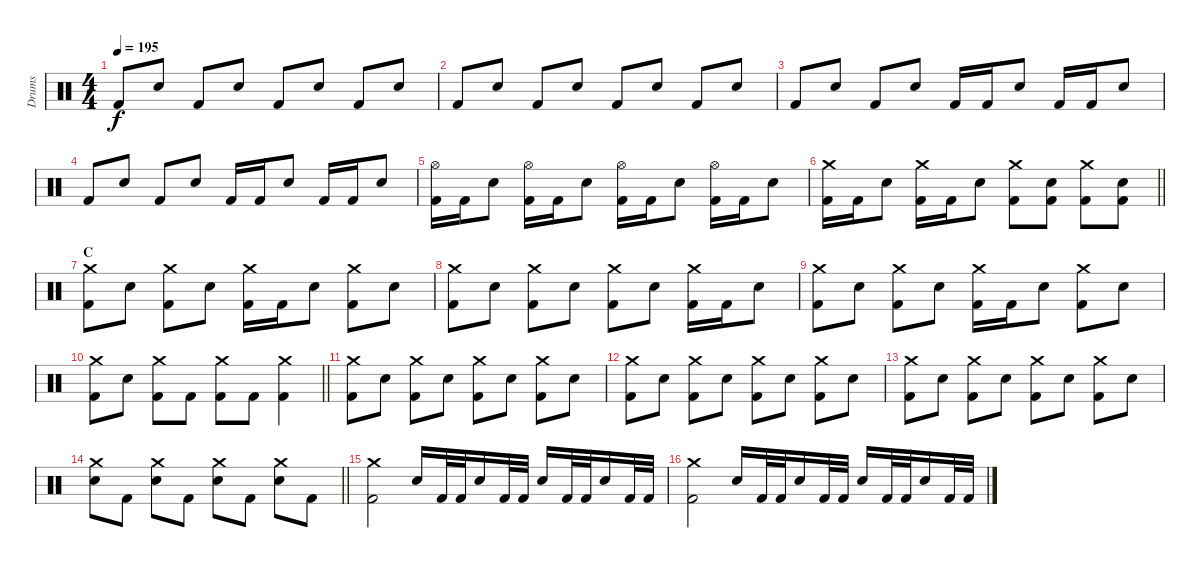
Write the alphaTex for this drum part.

\track ("Drums" "Drums") {instrument percussion}
\staff {score}
\articulation defaults
\ts (4 4)
\tempo 195
\clef neutral
\ks c "Kick (hit) 2".8{dy f} "Electric Snare (hit)".8 "Kick (hit) 2".8 "Electric Snare (hit)".8 "Kick (hit) 2".8 "Electric Snare (hit)".8 "Kick (hit) 2".8 "Electric Snare (hit)".8
|
"Kick (hit) 2".8 "Electric Snare (hit)".8 "Kick (hit) 2".8 "Electric Snare (hit)".8 "Kick (hit) 2".8 "Electric Snare (hit)".8 "Kick (hit) 2".8 "Electric Snare (hit)".8 |
"Kick (hit) 2".8 "Electric Snare (hit)".8 "Kick (hit) 2".8 "Electric Snare (hit)".8 "Kick (hit) 2".16 "Kick (hit) 2".16 "Electric Snare (hit)".8 "Kick (hit) 2".16 "Kick (hit) 2".16 "Electric Snare (hit)".8 |
"Kick (hit) 2".8 "Electric Snare (hit)".8 "Kick (hit) 2".8 "Electric Snare (hit)".8 "Kick (hit) 2".16 "Kick (hit) 2".16 "Electric Snare (hit)".8 "Kick (hit) 2".16 "Kick (hit) 2".16 "Electric Snare (hit)".8 |
("Hi-Hat (open)" "Kick (hit) 2").16 "Kick (hit) 2".16 "Electric Snare (hit)".8 ("Hi-Hat (open)" "Kick (hit) 2").16 "Kick (hit) 2".16 "Electric Snare (hit)".8 ("Hi-Hat (open)" "Kick (hit) 2").16 "Kick (hit) 2".16 "Electric Snare (hit)".8 ("Hi-Hat (open)" "Kick (hit) 2").16 "Kick (hit) 2".16 "Electric Snare (hit)".8 |
\barLineRight lightlight
("Crash medium (hit)" "Kick (hit) 2").16 "Kick (hit) 2".16 "Electric Snare (hit)".8 ("Crash medium (hit)" "Kick (hit) 2").16 "Kick (hit) 2".16 "Electric Snare (hit)".8 ("Crash medium (hit)" "Kick (hit) 2").8 ("Electric Snare (hit)" "Kick (hit) 2").8 ("Crash medium (hit)" "Kick (hit) 2").8 ("Electric Snare (hit)" "Kick (hit) 2").8 |
\section ("" "C")
("Crash medium (hit)" "Kick (hit) 2").8 "Electric Snare (hit)".8 ("Crash medium (hit)" "Kick (hit) 2").8 "Electric Snare (hit)".8 ("Crash medium (hit)" "Kick (hit) 2").16 "Kick (hit) 2".16 "Electric Snare (hit)".8 ("Crash medium (hit)" "Kick (hit) 2").8 "Electric Snare (hit)".8 |
("Crash medium (hit)" "Kick (hit) 2").8 "Electric Snare (hit)".8 ("Crash medium (hit)" "Kick (hit) 2").8 "Electric Snare (hit)".8 ("Crash medium (hit)" "Kick (hit) 2").8 "Electric Snare (hit)".8 ("Crash medium (hit)" "Kick (hit) 2").16 "Kick (hit) 2".16 "Electric Snare (hit)".8 |
("Crash medium (hit)" "Kick (hit) 2").8 "Electric Snare (hit)".8 ("Crash medium (hit)" "Kick (hit) 2").8 "Electric Snare (hit)".8 ("Crash medium (hit)" "Kick (hit) 2").16 "Kick (hit) 2".16 "Electric Snare (hit)".8 ("Crash medium (hit)" "Kick (hit) 2").8 "Electric Snare (hit)".8 |
\barLineRight lightlight
("Crash medium (hit)" "Kick (hit) 2").8 "Electric Snare (hit)".8 ("Crash medium (hit)" "Kick (hit) 2").8 "Kick (hit) 2".8 ("Crash medium (hit)" "Kick (hit) 2").8 "Kick (hit) 2".8 ("Crash medium (hit)" "Kick (hit) 2").4 |
("Crash medium (hit)" "Kick (hit) 2").8 "Electric Snare (hit)".8 ("Crash medium (hit)" "Kick (hit) 2").8 "Electric Snare (hit)".8 ("Crash medium (hit)" "Kick (hit) 2").8 "Electric Snare (hit)".8 ("Crash medium (hit)" "Kick (hit) 2").8 "Electric Snare (hit)".8 |
("Crash medium (hit)" "Kick (hit) 2").8 "Electric Snare (hit)".8 ("Crash medium (hit)" "Kick (hit) 2").8 "Electric Snare (hit)".8 ("Crash medium (hit)" "Kick (hit) 2").8 "Electric Snare (hit)".8 ("Crash medium (hit)" "Kick (hit) 2").8 "Electric Snare (hit)".8 |
("Crash medium (hit)" "Kick (hit) 2").8 "Electric Snare (hit)".8 ("Crash medium (hit)" "Kick (hit) 2").8 "Electric Snare (hit)".8 ("Crash medium (hit)" "Kick (hit) 2").8 "Electric Snare (hit)".8 ("Crash medium (hit)" "Kick (hit) 2").8 "Electric Snare (hit)".8 |
\barLineRight lightlight
("Crash medium (hit)" "Electric Snare (hit)").8 "Kick (hit) 2".8 ("Crash medium (hit)" "Electric Snare (hit)").8 "Kick (hit) 2".8 ("Crash medium (hit)" "Electric Snare (hit)").8 "Kick (hit) 2".8 ("Crash medium (hit)" "Electric Snare (hit)").8 "Kick (hit) 2".8 |
("Crash medium (hit)" "Kick (hit) 2").2 "Electric Snare (hit)".16 "Kick (hit) 2".32 "Kick (hit) 2".32 "Electric Snare (hit)".16 "Kick (hit) 2".32 "Kick (hit) 2".32 "Electric Snare (hit)".16 "Kick (hit) 2".32 "Kick (hit) 2".32 "Electric Snare (hit)".16 "Kick (hit) 2".32 "Kick (hit) 2".32 |
("Crash medium (hit)" "Kick (hit) 2").2 "Electric Snare (hit)".16 "Kick (hit) 2".32 "Kick (hit) 2".32 "Electric Snare (hit)".16 "Kick (hit) 2".32 "Kick (hit) 2".32 "Electric Snare (hit)".16 "Kick (hit) 2".32 "Kick (hit) 2".32 "Electric Snare (hit)".16 "Kick (hit) 2".32 "Kick (hit) 2".32
